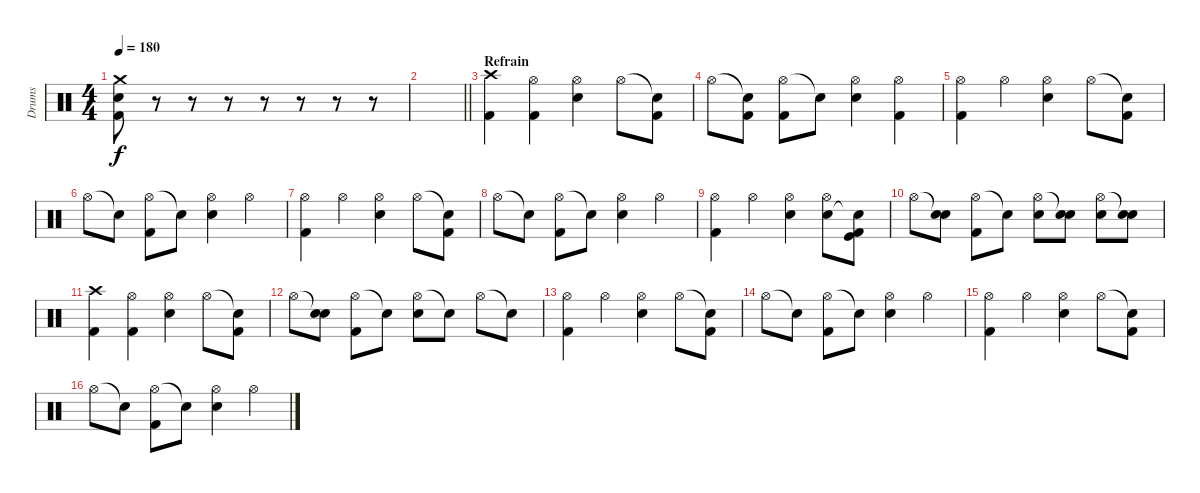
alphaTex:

\track ("Drums" "Drums") {instrument percussion}
\staff {score}
\articulation defaults
\ts (4 4)
\tempo 180
\clef neutral
\ks c
("Crash medium (hit)" "Kick (hit) 2" "Snare (hit) 2").8{dy f} r.8 r.8 r.8 r.8 r.8 r.8 r.8 |
\barLineRight lightlight
|
\section ("" "Refrain")
("Crash high (hit)" "Kick (hit) 2").4 ("Hi-Hat (open)" "Kick (hit) 2").4 ("Hi-Hat (open)" "Snare (hit) 2").4 "Hi-Hat (open)".8 ("Snare (hit)"{t} "Kick (hit) 2").8 |
"Hi-Hat (open)".8 ("Snare (hit)"{t} "Kick (hit) 2").8 ("Hi-Hat (open)" "Kick (hit) 2").8 "Snare (hit)"{t}.8 ("Hi-Hat (open)" "Snare (hit) 2").4 ("Hi-Hat (open)" "Kick (hit) 2").4 |
("Hi-Hat (open)" "Kick (hit) 2").4 "Hi-Hat (open)".4 ("Hi-Hat (open)" "Snare (hit) 2").4 "Hi-Hat (open)".8 ("Snare (hit)"{t} "Kick (hit) 2").8 |
"Hi-Hat (open)".8 "Snare (hit)"{t}.8 ("Hi-Hat (open)" "Kick (hit) 2").8 "Snare (hit)"{t}.8 ("Hi-Hat (open)" "Snare (hit) 2").4 "Hi-Hat (open)".4 |
("Hi-Hat (open)" "Kick (hit) 2").4 "Hi-Hat (open)".4 ("Hi-Hat (open)" "Snare (hit) 2").4 "Hi-Hat (open)".8 ("Snare (hit)"{t} "Kick (hit) 2").8 |
"Hi-Hat (open)".8 "Snare (hit)"{t}.8 ("Hi-Hat (open)" "Kick (hit) 2").8 "Snare (hit)"{t}.8 ("Hi-Hat (open)" "Snare (hit) 2").4 "Hi-Hat (open)".4 |
("Hi-Hat (open)" "Kick (hit) 2").4 "Hi-Hat (open)".4 ("Hi-Hat (open)" "Snare (hit) 2").4 ("Hi-Hat (open)" "Snare (hit) 2").8 ("Kick (hit)" "Snare (hit)"{t} "Kick (hit) 2").8 |
"Hi-Hat (open)".8 ("Snare (hit)"{t} "Snare (hit) 2").8 ("Hi-Hat (open)" "Kick (hit) 2").8 "Snare (hit)"{t}.8 ("Hi-Hat (open)" "Snare (hit) 2").8 ("Snare (hit)"{t} "Snare (hit) 2").8 ("Hi-Hat (open)" "Snare (hit) 2").8 ("Snare (hit)"{t} "Snare (hit) 2").8 |
("Crash high (hit)" "Kick (hit) 2").4 ("Hi-Hat (open)" "Kick (hit) 2").4 ("Hi-Hat (open)" "Snare (hit) 2").4 "Hi-Hat (open)".8 ("Snare (hit)"{t} "Kick (hit) 2").8 |
"Hi-Hat (open)".8 ("Snare (hit)"{t} "Snare (hit) 2").8 ("Hi-Hat (open)" "Kick (hit) 2").8 "Snare (hit)"{t}.8 ("Hi-Hat (open)" "Snare (hit) 2").8 "Snare (hit)"{t}.8 "Hi-Hat (open)".8 "Snare (hit)"{t}.8 |
("Hi-Hat (open)" "Kick (hit) 2").4 "Hi-Hat (open)".4 ("Hi-Hat (open)" "Snare (hit) 2").4 "Hi-Hat (open)".8 ("Snare (hit)"{t} "Kick (hit) 2").8 |
"Hi-Hat (open)".8 "Snare (hit)"{t}.8 ("Hi-Hat (open)" "Kick (hit) 2").8 "Snare (hit)"{t}.8 ("Hi-Hat (open)" "Snare (hit) 2").4 "Hi-Hat (open)".4 |
("Hi-Hat (open)" "Kick (hit) 2").4 "Hi-Hat (open)".4 ("Hi-Hat (open)" "Snare (hit) 2").4 "Hi-Hat (open)".8 ("Snare (hit)"{t} "Kick (hit) 2").8 |
"Hi-Hat (open)".8 "Snare (hit)"{t}.8 ("Hi-Hat (open)" "Kick (hit) 2").8 "Snare (hit)"{t}.8 ("Hi-Hat (open)" "Snare (hit) 2").4 "Hi-Hat (open)".4
